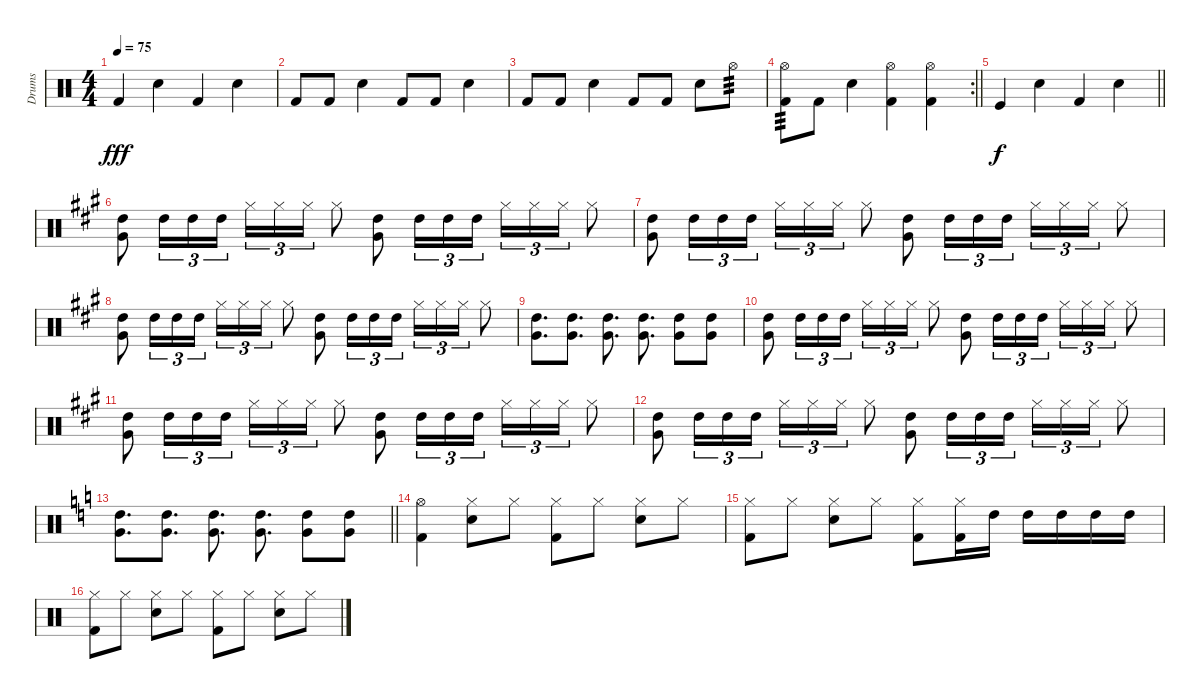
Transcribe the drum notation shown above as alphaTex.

\track ("Drums" "Drums") {instrument percussion}
\staff {score}
\articulation defaults
\ts (4 4)
\tempo 75
\clef neutral
\ks c "Kick (hit) 2".4{dy fff} "Snare (hit) 2".4 "Kick (hit) 2".4 "Snare (hit) 2".4
|
"Kick (hit) 2".8 "Kick (hit) 2".8 "Snare (hit) 2".4 "Kick (hit) 2".8 "Kick (hit) 2".8 "Snare (hit) 2".4 |
"Kick (hit) 2".8 "Kick (hit) 2".8 "Snare (hit) 2".4 "Kick (hit) 2".8 "Kick (hit) 2".8 "Snare (hit) 2".8 "Hi-Hat (open)".8{tp 3} |
\rc 2
\barLineRight lightlight
("Hi-Hat (open)" "Kick (hit) 2").8{tp 3} "Kick (hit) 2".8 "Snare (hit) 2".4 ("Hi-Hat (open)" "Kick (hit) 2").4 ("Hi-Hat (open)" "Kick (hit) 2").4 |
\barLineRight lightlight "Kick (hit)".4{dy f} "Snare (hit) 2".4 "Kick (hit) 2".4 "Snare (hit) 2".4
|
\ks a
("High Tom (hit)" "Very Low Tom (hit)").8 "High Tom (hit)".16{tu (3 2)} "High Tom (hit)".16{tu (3 2)} "High Tom (hit)".16{tu (3 2)} "Hi-Hat (closed)".16{tu (3 2)} "Hi-Hat (closed)".16{tu (3 2)} "Hi-Hat (closed)".16{tu (3 2)} "Hi-Hat (closed)".8 ("High Tom (hit)" "Very Low Tom (hit)").8 "High Tom (hit)".16{tu (3 2)} "High Tom (hit)".16{tu (3 2)} "High Tom (hit)".16{tu (3 2)} "Hi-Hat (closed)".16{tu (3 2)} "Hi-Hat (closed)".16{tu (3 2)} "Hi-Hat (closed)".16{tu (3 2)} "Hi-Hat (closed)".8 |
("High Tom (hit)" "Very Low Tom (hit)").8 "High Tom (hit)".16{tu (3 2)} "High Tom (hit)".16{tu (3 2)} "High Tom (hit)".16{tu (3 2)} "Hi-Hat (closed)".16{tu (3 2)} "Hi-Hat (closed)".16{tu (3 2)} "Hi-Hat (closed)".16{tu (3 2)} "Hi-Hat (closed)".8 ("High Tom (hit)" "Very Low Tom (hit)").8 "High Tom (hit)".16{tu (3 2)} "High Tom (hit)".16{tu (3 2)} "High Tom (hit)".16{tu (3 2)} "Hi-Hat (closed)".16{tu (3 2)} "Hi-Hat (closed)".16{tu (3 2)} "Hi-Hat (closed)".16{tu (3 2)} "Hi-Hat (closed)".8 |
("High Tom (hit)" "Very Low Tom (hit)").8 "High Tom (hit)".16{tu (3 2)} "High Tom (hit)".16{tu (3 2)} "High Tom (hit)".16{tu (3 2)} "Hi-Hat (closed)".16{tu (3 2)} "Hi-Hat (closed)".16{tu (3 2)} "Hi-Hat (closed)".16{tu (3 2)} "Hi-Hat (closed)".8 ("High Tom (hit)" "Very Low Tom (hit)").8 "High Tom (hit)".16{tu (3 2)} "High Tom (hit)".16{tu (3 2)} "High Tom (hit)".16{tu (3 2)} "Hi-Hat (closed)".16{tu (3 2)} "Hi-Hat (closed)".16{tu (3 2)} "Hi-Hat (closed)".16{tu (3 2)} "Hi-Hat (closed)".8 |
("High Tom (hit)" "Very Low Tom (hit)").8{d} ("High Tom (hit)" "Very Low Tom (hit)").8{d} ("High Tom (hit)" "Very Low Tom (hit)").8{d} ("High Tom (hit)" "Very Low Tom (hit)").8{d} ("High Tom (hit)" "Very Low Tom (hit)").8 ("High Tom (hit)" "Very Low Tom (hit)").8 |
("High Tom (hit)" "Very Low Tom (hit)").8 "High Tom (hit)".16{tu (3 2)} "High Tom (hit)".16{tu (3 2)} "High Tom (hit)".16{tu (3 2)} "Hi-Hat (closed)".16{tu (3 2)} "Hi-Hat (closed)".16{tu (3 2)} "Hi-Hat (closed)".16{tu (3 2)} "Hi-Hat (closed)".8 ("High Tom (hit)" "Very Low Tom (hit)").8 "High Tom (hit)".16{tu (3 2)} "High Tom (hit)".16{tu (3 2)} "High Tom (hit)".16{tu (3 2)} "Hi-Hat (closed)".16{tu (3 2)} "Hi-Hat (closed)".16{tu (3 2)} "Hi-Hat (closed)".16{tu (3 2)} "Hi-Hat (closed)".8 |
("High Tom (hit)" "Very Low Tom (hit)").8 "High Tom (hit)".16{tu (3 2)} "High Tom (hit)".16{tu (3 2)} "High Tom (hit)".16{tu (3 2)} "Hi-Hat (closed)".16{tu (3 2)} "Hi-Hat (closed)".16{tu (3 2)} "Hi-Hat (closed)".16{tu (3 2)} "Hi-Hat (closed)".8 ("High Tom (hit)" "Very Low Tom (hit)").8 "High Tom (hit)".16{tu (3 2)} "High Tom (hit)".16{tu (3 2)} "High Tom (hit)".16{tu (3 2)} "Hi-Hat (closed)".16{tu (3 2)} "Hi-Hat (closed)".16{tu (3 2)} "Hi-Hat (closed)".16{tu (3 2)} "Hi-Hat (closed)".8 |
("High Tom (hit)" "Very Low Tom (hit)").8 "High Tom (hit)".16{tu (3 2)} "High Tom (hit)".16{tu (3 2)} "High Tom (hit)".16{tu (3 2)} "Hi-Hat (closed)".16{tu (3 2)} "Hi-Hat (closed)".16{tu (3 2)} "Hi-Hat (closed)".16{tu (3 2)} "Hi-Hat (closed)".8 ("High Tom (hit)" "Very Low Tom (hit)").8 "High Tom (hit)".16{tu (3 2)} "High Tom (hit)".16{tu (3 2)} "High Tom (hit)".16{tu (3 2)} "Hi-Hat (closed)".16{tu (3 2)} "Hi-Hat (closed)".16{tu (3 2)} "Hi-Hat (closed)".16{tu (3 2)} "Hi-Hat (closed)".8 |
\barLineRight lightlight
\ks c
("High Tom (hit)" "Very Low Tom (hit)").8{d} ("High Tom (hit)" "Very Low Tom (hit)").8{d} ("High Tom (hit)" "Very Low Tom (hit)").8{d} ("High Tom (hit)" "Very Low Tom (hit)").8{d} ("High Tom (hit)" "Very Low Tom (hit)").8 ("High Tom (hit)" "Very Low Tom (hit)").8 |
("Hi-Hat (open)" "Kick (hit) 2").4 ("Hi-Hat (closed)" "Snare (hit) 2").8 "Hi-Hat (closed)".8 ("Hi-Hat (closed)" "Kick (hit) 2").8 "Hi-Hat (closed)".8 ("Hi-Hat (closed)" "Snare (hit) 2").8 "Hi-Hat (closed)".8 |
("Hi-Hat (closed)" "Kick (hit) 2").8 "Hi-Hat (closed)".8 ("Hi-Hat (closed)" "Snare (hit) 2").8 "Hi-Hat (closed)".8 ("Hi-Hat (closed)" "Kick (hit) 2").8 ("Hi-Hat (closed)" "Kick (hit) 2").16 "High Tom (hit)".16 "High Tom (hit)".16 "High Tom (hit)".16 "High Tom (hit)".16 "High Tom (hit)".16 |
("Hi-Hat (closed)" "Kick (hit) 2").8 "Hi-Hat (closed)".8 ("Hi-Hat (closed)" "Snare (hit) 2").8 "Hi-Hat (closed)".8 ("Hi-Hat (closed)" "Kick (hit) 2").8 "Hi-Hat (closed)".8 ("Hi-Hat (closed)" "Snare (hit) 2").8 "Hi-Hat (closed)".8
